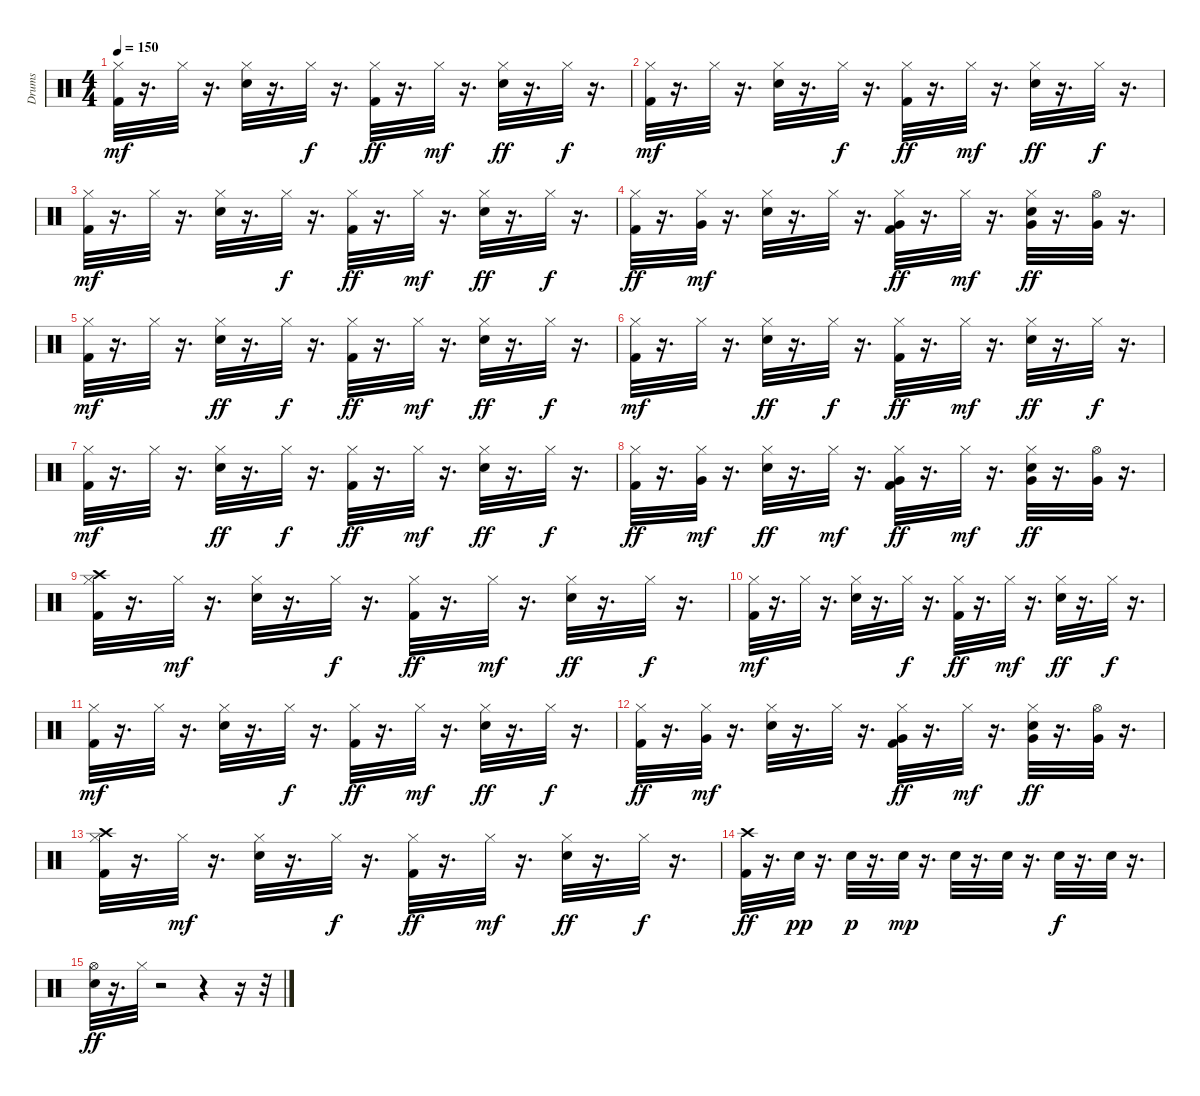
\track ("Drums" "Drums") {instrument percussion}
\staff {score}
\articulation defaults
\ts (4 4)
\tempo 150
\clef neutral
\ks c
("Kick (hit) 2" "Hi-Hat (closed)").32{dy mf} r.16{d} "Hi-Hat (closed)".32 r.16{d} ("Snare (hit) 2" "Hi-Hat (closed)").32 r.16{d} "Hi-Hat (closed)".32{dy f} r.16{d} ("Kick (hit) 2" "Hi-Hat (closed)").32{dy ff} r.16{d} "Hi-Hat (closed)".32{dy mf} r.16{d} ("Snare (hit) 2" "Hi-Hat (closed)").32{dy ff} r.16{d} "Hi-Hat (closed)".32{dy f} r.16{d} |
("Kick (hit) 2" "Hi-Hat (closed)").32{dy mf} r.16{d} "Hi-Hat (closed)".32 r.16{d} ("Snare (hit) 2" "Hi-Hat (closed)").32 r.16{d} "Hi-Hat (closed)".32{dy f} r.16{d} ("Kick (hit) 2" "Hi-Hat (closed)").32{dy ff} r.16{d} "Hi-Hat (closed)".32{dy mf} r.16{d} ("Hi-Hat (closed)" "Snare (hit) 2").32{dy ff} r.16{d} "Hi-Hat (closed)".32{dy f} r.16{d} |
("Kick (hit) 2" "Hi-Hat (closed)").32{dy mf} r.16{d} "Hi-Hat (closed)".32 r.16{d} ("Snare (hit) 2" "Hi-Hat (closed)").32 r.16{d} "Hi-Hat (closed)".32{dy f} r.16{d} ("Kick (hit) 2" "Hi-Hat (closed)").32{dy ff} r.16{d} "Hi-Hat (closed)".32{dy mf} r.16{d} ("Snare (hit) 2" "Hi-Hat (closed)").32{dy ff} r.16{d} "Hi-Hat (closed)".32{dy f} r.16{d} |
("Kick (hit) 2" "Hi-Hat (closed)").32{dy ff} r.16{d} ("Hi-Hat (closed)" "Very Low Tom (hit)").32{dy mf} r.16{d} ("Snare (hit) 2" "Hi-Hat (closed)").32 r.16{d} "Hi-Hat (closed)".32 r.16{d} ("Hi-Hat (closed)" "Kick (hit) 2" "Very Low Tom (hit)").32{dy ff} r.16{d} "Hi-Hat (closed)".32{dy mf} r.16{d} ("Hi-Hat (closed)" "Snare (hit) 2" "Very Low Tom (hit)").32{dy ff} r.16{d} ("Hi-Hat (open)" "Very Low Tom (hit)").32 r.16{d} |
("Kick (hit) 2" "Hi-Hat (closed)").32{dy mf} r.16{d} "Hi-Hat (closed)".32 r.16{d} ("Hi-Hat (closed)" "Snare (hit) 2").32{dy ff} r.16{d} "Hi-Hat (closed)".32{dy f} r.16{d} ("Hi-Hat (closed)" "Kick (hit) 2").32{dy ff} r.16{d} "Hi-Hat (closed)".32{dy mf} r.16{d} ("Hi-Hat (closed)" "Snare (hit) 2").32{dy ff} r.16{d} "Hi-Hat (closed)".32{dy f} r.16{d} |
("Kick (hit) 2" "Hi-Hat (closed)").32{dy mf} r.16{d} "Hi-Hat (closed)".32 r.16{d} ("Hi-Hat (closed)" "Snare (hit) 2").32{dy ff} r.16{d} "Hi-Hat (closed)".32{dy f} r.16{d} ("Hi-Hat (closed)" "Kick (hit) 2").32{dy ff} r.16{d} "Hi-Hat (closed)".32{dy mf} r.16{d} ("Hi-Hat (closed)" "Snare (hit) 2").32{dy ff} r.16{d} "Hi-Hat (closed)".32{dy f} r.16{d} |
("Kick (hit) 2" "Hi-Hat (closed)").32{dy mf} r.16{d} "Hi-Hat (closed)".32 r.16{d} ("Hi-Hat (closed)" "Snare (hit) 2").32{dy ff} r.16{d} "Hi-Hat (closed)".32{dy f} r.16{d} ("Hi-Hat (closed)" "Kick (hit) 2").32{dy ff} r.16{d} "Hi-Hat (closed)".32{dy mf} r.16{d} ("Hi-Hat (closed)" "Snare (hit) 2").32{dy ff} r.16{d} "Hi-Hat (closed)".32{dy f} r.16{d} |
("Kick (hit) 2" "Hi-Hat (closed)").32{dy ff} r.16{d} ("Hi-Hat (closed)" "Very Low Tom (hit)").32{dy mf} r.16{d} ("Hi-Hat (closed)" "Snare (hit) 2").32{dy ff} r.16{d} "Hi-Hat (closed)".32{dy mf} r.16{d} ("Hi-Hat (closed)" "Kick (hit) 2" "Very Low Tom (hit)").32{dy ff} r.16{d} "Hi-Hat (closed)".32{dy mf} r.16{d} ("Hi-Hat (closed)" "Snare (hit) 2" "Very Low Tom (hit)").32{dy ff} r.16{d} ("Very Low Tom (hit)" "Hi-Hat (open)").32 r.16{d} |
("Kick (hit) 2" "Hi-Hat (closed)" "Crash high (hit)").32 r.16{d} "Hi-Hat (closed)".32{dy mf} r.16{d} ("Snare (hit) 2" "Hi-Hat (closed)").32 r.16{d} "Hi-Hat (closed)".32{dy f} r.16{d} ("Hi-Hat (closed)" "Kick (hit) 2").32{dy ff} r.16{d} "Hi-Hat (closed)".32{dy mf} r.16{d} ("Hi-Hat (closed)" "Snare (hit) 2").32{dy ff} r.16{d} "Hi-Hat (closed)".32{dy f} r.16{d} |
("Kick (hit) 2" "Hi-Hat (closed)").32{dy mf} r.16{d} "Hi-Hat (closed)".32 r.16{d} ("Snare (hit) 2" "Hi-Hat (closed)").32 r.16{d} "Hi-Hat (closed)".32{dy f} r.16{d} ("Hi-Hat (closed)" "Kick (hit) 2").32{dy ff} r.16{d} "Hi-Hat (closed)".32{dy mf} r.16{d} ("Hi-Hat (closed)" "Snare (hit) 2").32{dy ff} r.16{d} "Hi-Hat (closed)".32{dy f} r.16{d} |
("Kick (hit) 2" "Hi-Hat (closed)").32{dy mf} r.16{d} "Hi-Hat (closed)".32 r.16{d} ("Snare (hit) 2" "Hi-Hat (closed)").32 r.16{d} "Hi-Hat (closed)".32{dy f} r.16{d} ("Hi-Hat (closed)" "Kick (hit) 2").32{dy ff} r.16{d} "Hi-Hat (closed)".32{dy mf} r.16{d} ("Hi-Hat (closed)" "Snare (hit) 2").32{dy ff} r.16{d} "Hi-Hat (closed)".32{dy f} r.16{d} |
("Kick (hit) 2" "Hi-Hat (closed)").32{dy ff} r.16{d} ("Hi-Hat (closed)" "Very Low Tom (hit)").32{dy mf} r.16{d} ("Snare (hit) 2" "Hi-Hat (closed)").32 r.16{d} "Hi-Hat (closed)".32 r.16{d} ("Hi-Hat (closed)" "Kick (hit) 2" "Very Low Tom (hit)").32{dy ff} r.16{d} "Hi-Hat (closed)".32{dy mf} r.16{d} ("Hi-Hat (closed)" "Snare (hit) 2" "Very Low Tom (hit)").32{dy ff} r.16{d} ("Hi-Hat (open)" "Very Low Tom (hit)").32 r.16{d} |
("Hi-Hat (closed)" "Kick (hit) 2" "Crash high (hit)").32 r.16{d} "Hi-Hat (closed)".32{dy mf} r.16{d} ("Snare (hit) 2" "Hi-Hat (closed)").32 r.16{d} "Hi-Hat (closed)".32{dy f} r.16{d} ("Kick (hit) 2" "Hi-Hat (closed)").32{dy ff} r.16{d} "Hi-Hat (closed)".32{dy mf} r.16{d} ("Hi-Hat (closed)" "Snare (hit) 2").32{dy ff} r.16{d} "Hi-Hat (closed)".32{dy f} r.16{d} |
("Kick (hit) 2" "Crash high (hit)").32{dy ff} r.16{d} "Snare (hit) 2".32{dy pp} r.16{d} "Snare (hit) 2".32{dy p} r.16{d} "Snare (hit) 2".32{dy mp} r.16{d} "Snare (hit) 2".32 r.16{d} "Snare (hit) 2".32 r.16{d} "Snare (hit) 2".32{dy f} r.16{d} "Snare (hit) 2".32 r.16{d} |
("Snare (hit) 2" "Hi-Hat (open)").32{dy ff} r.16{d} "Hi-Hat (closed)".32 r.2 r.4 r.16 r.32
